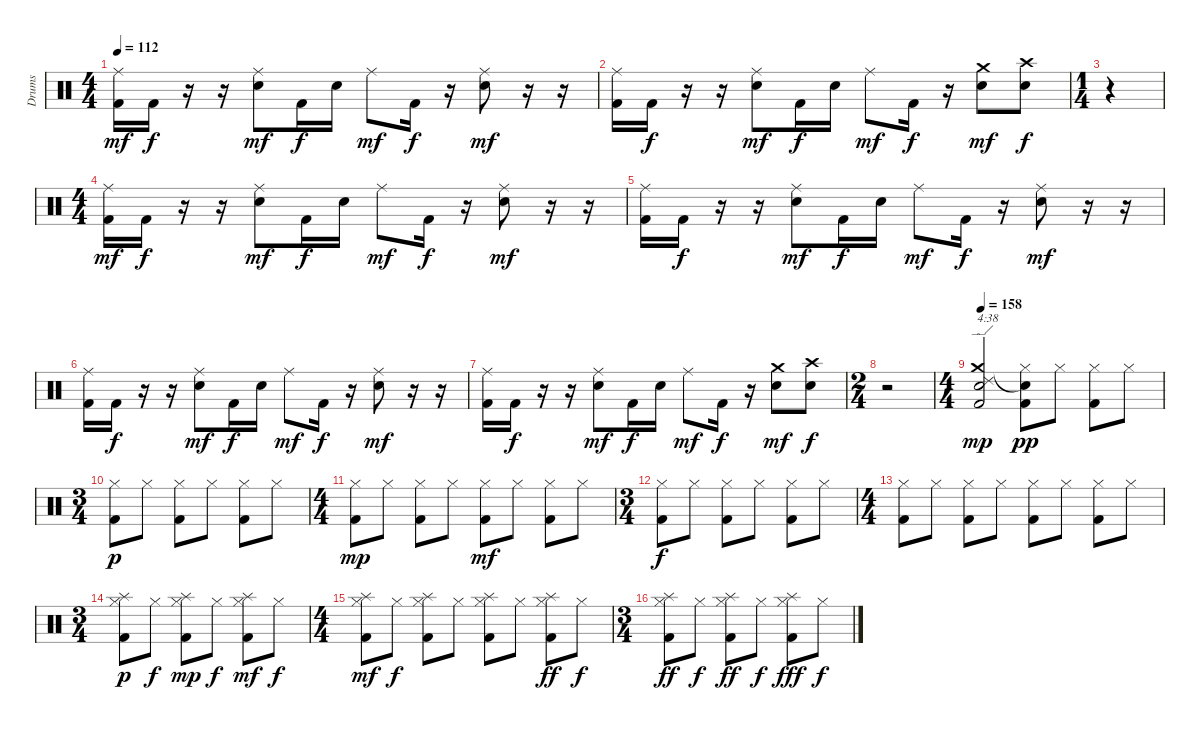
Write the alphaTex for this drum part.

\track ("Drums" "Drums") {instrument percussion}
\staff {score}
\articulation defaults
\ts (4 4)
\tempo 112
\clef neutral
\ks c
("Ride (middle)" "Kick (hit) 2").16{dy mf} "Kick (hit) 2".16{dy f} r.16 r.16 ("Ride (middle)" "Electric Snare (hit)").8{dy mf} "Kick (hit) 2".16{dy f} "Electric Snare (hit)".16 "Ride (middle)".8{dy mf} "Kick (hit) 2".16{dy f} r.16 ("Ride (middle)" "Electric Snare (hit)").8{dy mf} r.16 r.16 |
("Ride (middle)" "Kick (hit) 2").16 "Kick (hit) 2".16{dy f} r.16 r.16 ("Ride (middle)" "Electric Snare (hit)").8{dy mf} "Kick (hit) 2".16{dy f} "Electric Snare (hit)".16 "Ride (middle)".8{dy mf} "Kick (hit) 2".16{dy f} r.16 ("Crash medium (hit)" "Electric Snare (hit)").8{dy mf} ("Crash high (hit)" "Electric Snare (hit)").8{dy f} |
\ts (1 4)
r.4 |
\ts (4 4)
("Ride (middle)" "Kick (hit) 2").16{dy mf} "Kick (hit) 2".16{dy f} r.16 r.16 ("Ride (middle)" "Electric Snare (hit)").8{dy mf} "Kick (hit) 2".16{dy f} "Electric Snare (hit)".16 "Ride (middle)".8{dy mf} "Kick (hit) 2".16{dy f} r.16 ("Ride (middle)" "Electric Snare (hit)").8{dy mf} r.16 r.16 |
("Ride (middle)" "Kick (hit) 2").16 "Kick (hit) 2".16{dy f} r.16 r.16 ("Ride (middle)" "Electric Snare (hit)").8{dy mf} "Kick (hit) 2".16{dy f} "Electric Snare (hit)".16 "Ride (middle)".8{dy mf} "Kick (hit) 2".16{dy f} r.16 ("Ride (middle)" "Electric Snare (hit)").8{dy mf} r.16 r.16 |
("Ride (middle)" "Kick (hit) 2").16 "Kick (hit) 2".16{dy f} r.16 r.16 ("Ride (middle)" "Electric Snare (hit)").8{dy mf} "Kick (hit) 2".16{dy f} "Electric Snare (hit)".16 "Ride (middle)".8{dy mf} "Kick (hit) 2".16{dy f} r.16 ("Ride (middle)" "Electric Snare (hit)").8{dy mf} r.16 r.16 |
("Ride (middle)" "Kick (hit) 2").16 "Kick (hit) 2".16{dy f} r.16 r.16 ("Ride (middle)" "Electric Snare (hit)").8{dy mf} "Kick (hit) 2".16{dy f} "Electric Snare (hit)".16 "Ride (middle)".8{dy mf} "Kick (hit) 2".16{dy f} r.16 ("Crash medium (hit)" "Electric Snare (hit)").8{dy mf} ("Crash high (hit)" "Electric Snare (hit)").8{dy f} |
\ts (2 4)
r.2 |
\ts (4 4)
\tempo 158
("Ride (edge) 2" "Crash medium (hit)" "Snare (hit) 2" "Kick (hit) 2").2{txt "4:38" dy mp} ("Hi-Hat (closed)" "Snare (hit)"{t} "Kick (hit) 2").8{dy pp} "Hi-Hat (closed)".8 ("Hi-Hat (closed)" "Kick (hit) 2").8 "Hi-Hat (closed)".8 |
\ts (3 4)
("Hi-Hat (closed)" "Kick (hit) 2").8{dy p} "Hi-Hat (closed)".8 ("Hi-Hat (closed)" "Kick (hit) 2").8 "Hi-Hat (closed)".8 ("Hi-Hat (closed)" "Kick (hit) 2").8 "Hi-Hat (closed)".8 |
\ts (4 4)
("Hi-Hat (closed)" "Kick (hit) 2").8{dy mp} "Hi-Hat (closed)".8 ("Hi-Hat (closed)" "Kick (hit) 2").8 "Hi-Hat (closed)".8 ("Hi-Hat (closed)" "Kick (hit) 2").8{dy mf} "Hi-Hat (closed)".8 ("Hi-Hat (closed)" "Kick (hit) 2").8 "Hi-Hat (closed)".8 |
\ts (3 4)
("Hi-Hat (closed)" "Kick (hit) 2").8{dy f} "Hi-Hat (closed)".8 ("Hi-Hat (closed)" "Kick (hit) 2").8 "Hi-Hat (closed)".8 ("Hi-Hat (closed)" "Kick (hit) 2").8 "Hi-Hat (closed)".8 |
\ts (4 4)
("Hi-Hat (closed)" "Kick (hit) 2").8 "Hi-Hat (closed)".8 ("Hi-Hat (closed)" "Kick (hit) 2").8 "Hi-Hat (closed)".8 ("Hi-Hat (closed)" "Kick (hit) 2").8 "Hi-Hat (closed)".8 ("Hi-Hat (closed)" "Kick (hit) 2").8 "Hi-Hat (closed)".8 |
\ts (3 4)
("Hi-Hat (closed)" "Splash (hit)" "Kick (hit) 2").8{dy p} "Hi-Hat (closed)".8{dy f} ("Hi-Hat (closed)" "Splash (hit)" "Kick (hit) 2").8{dy mp} "Hi-Hat (closed)".8{dy f} ("Hi-Hat (closed)" "Splash (hit)" "Kick (hit) 2").8{dy mf} "Hi-Hat (closed)".8{dy f} |
\ts (4 4)
("Hi-Hat (closed)" "Splash (hit)" "Kick (hit) 2").8{dy mf} "Hi-Hat (closed)".8{dy f} ("Hi-Hat (closed)" "Splash (hit)" "Kick (hit) 2").8 "Hi-Hat (closed)".8 ("Hi-Hat (closed)" "Splash (hit)" "Kick (hit) 2").8 "Hi-Hat (closed)".8 ("Hi-Hat (closed)" "Splash (hit)" "Kick (hit) 2").8{dy ff} "Hi-Hat (closed)".8{dy f} |
\ts (3 4)
("Hi-Hat (closed)" "Splash (hit)" "Kick (hit) 2").8{dy ff} "Hi-Hat (closed)".8{dy f} ("Hi-Hat (closed)" "Splash (hit)" "Kick (hit) 2").8{dy ff} "Hi-Hat (closed)".8{dy f} ("Hi-Hat (closed)" "Splash (hit)" "Kick (hit) 2").8{dy fff} "Hi-Hat (closed)".8{dy f}
